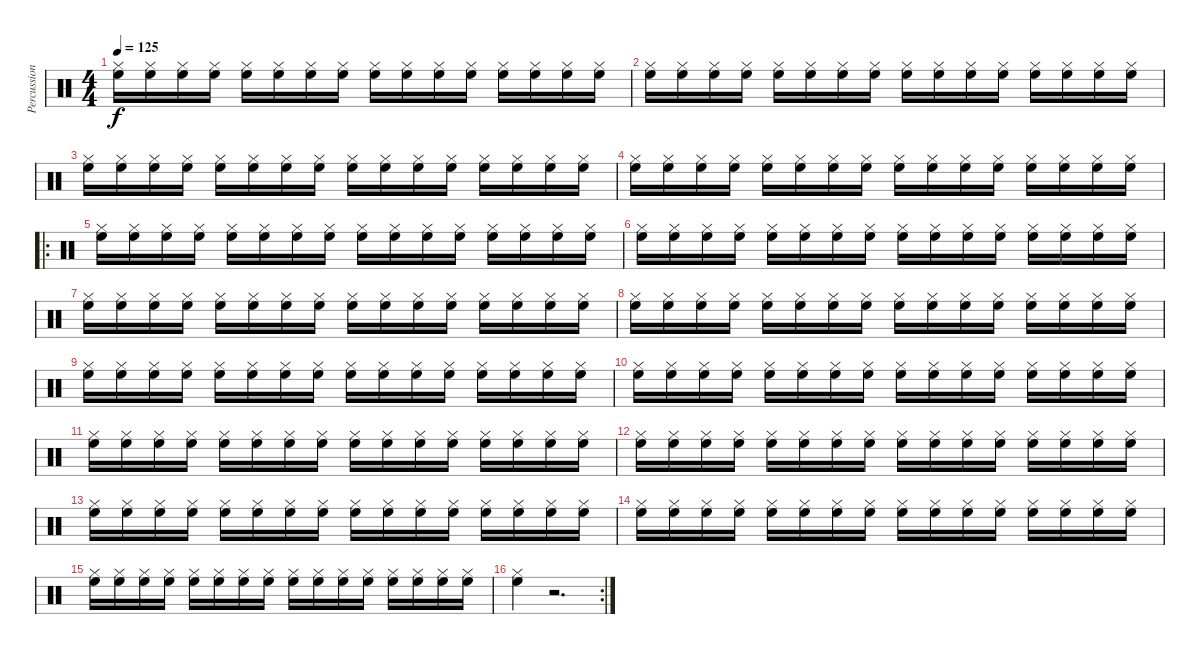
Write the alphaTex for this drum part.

\track ("Percussion" "Percussion") {instrument percussion}
\staff {score}
\articulation defaults
\ts (4 4)
\tempo 125
\clef neutral
\ks c
("Hi-Hat (closed)" "High Floor Tom (hit)").16{dy f} ("Hi-Hat (closed)" "High Floor Tom (hit)").16 ("Hi-Hat (closed)" "High Floor Tom (hit)").16 ("Hi-Hat (closed)" "High Floor Tom (hit)").16 ("Hi-Hat (closed)" "High Floor Tom (hit)").16 ("Hi-Hat (closed)" "High Floor Tom (hit)").16 ("Hi-Hat (closed)" "High Floor Tom (hit)").16 ("Hi-Hat (closed)" "High Floor Tom (hit)").16 ("Hi-Hat (closed)" "High Floor Tom (hit)").16 ("Hi-Hat (closed)" "High Floor Tom (hit)").16 ("Hi-Hat (closed)" "High Floor Tom (hit)").16 ("Hi-Hat (closed)" "High Floor Tom (hit)").16 ("Hi-Hat (closed)" "High Floor Tom (hit)").16 ("Hi-Hat (closed)" "High Floor Tom (hit)").16 ("Hi-Hat (closed)" "High Floor Tom (hit)").16 ("Hi-Hat (closed)" "High Floor Tom (hit)").16 |
("Hi-Hat (closed)" "High Floor Tom (hit)").16 ("Hi-Hat (closed)" "High Floor Tom (hit)").16 ("Hi-Hat (closed)" "High Floor Tom (hit)").16 ("Hi-Hat (closed)" "High Floor Tom (hit)").16 ("Hi-Hat (closed)" "High Floor Tom (hit)").16 ("Hi-Hat (closed)" "High Floor Tom (hit)").16 ("Hi-Hat (closed)" "High Floor Tom (hit)").16 ("Hi-Hat (closed)" "High Floor Tom (hit)").16 ("Hi-Hat (closed)" "High Floor Tom (hit)").16 ("Hi-Hat (closed)" "High Floor Tom (hit)").16 ("Hi-Hat (closed)" "High Floor Tom (hit)").16 ("Hi-Hat (closed)" "High Floor Tom (hit)").16 ("Hi-Hat (closed)" "High Floor Tom (hit)").16 ("Hi-Hat (closed)" "High Floor Tom (hit)").16 ("Hi-Hat (closed)" "High Floor Tom (hit)").16 ("Hi-Hat (closed)" "High Floor Tom (hit)").16 |
("Hi-Hat (closed)" "High Floor Tom (hit)").16 ("Hi-Hat (closed)" "High Floor Tom (hit)").16 ("Hi-Hat (closed)" "High Floor Tom (hit)").16 ("Hi-Hat (closed)" "High Floor Tom (hit)").16 ("Hi-Hat (closed)" "High Floor Tom (hit)").16 ("Hi-Hat (closed)" "High Floor Tom (hit)").16 ("Hi-Hat (closed)" "High Floor Tom (hit)").16 ("Hi-Hat (closed)" "High Floor Tom (hit)").16 ("Hi-Hat (closed)" "High Floor Tom (hit)").16 ("Hi-Hat (closed)" "High Floor Tom (hit)").16 ("Hi-Hat (closed)" "High Floor Tom (hit)").16 ("Hi-Hat (closed)" "High Floor Tom (hit)").16 ("Hi-Hat (closed)" "High Floor Tom (hit)").16 ("Hi-Hat (closed)" "High Floor Tom (hit)").16 ("Hi-Hat (closed)" "High Floor Tom (hit)").16 ("Hi-Hat (closed)" "High Floor Tom (hit)").16 |
("Hi-Hat (closed)" "High Floor Tom (hit)").16 ("Hi-Hat (closed)" "High Floor Tom (hit)").16 ("Hi-Hat (closed)" "High Floor Tom (hit)").16 ("Hi-Hat (closed)" "High Floor Tom (hit)").16 ("Hi-Hat (closed)" "High Floor Tom (hit)").16 ("Hi-Hat (closed)" "High Floor Tom (hit)").16 ("Hi-Hat (closed)" "High Floor Tom (hit)").16 ("Hi-Hat (closed)" "High Floor Tom (hit)").16 ("Hi-Hat (closed)" "High Floor Tom (hit)").16 ("Hi-Hat (closed)" "High Floor Tom (hit)").16 ("Hi-Hat (closed)" "High Floor Tom (hit)").16 ("Hi-Hat (closed)" "High Floor Tom (hit)").16 ("Hi-Hat (closed)" "High Floor Tom (hit)").16 ("Hi-Hat (closed)" "High Floor Tom (hit)").16 ("Hi-Hat (closed)" "High Floor Tom (hit)").16 ("Hi-Hat (closed)" "High Floor Tom (hit)").16 |
\ro
("Hi-Hat (closed)" "High Floor Tom (hit)").16 ("Hi-Hat (closed)" "High Floor Tom (hit)").16 ("Hi-Hat (closed)" "High Floor Tom (hit)").16 ("Hi-Hat (closed)" "High Floor Tom (hit)").16 ("Hi-Hat (closed)" "High Floor Tom (hit)").16 ("Hi-Hat (closed)" "High Floor Tom (hit)").16 ("Hi-Hat (closed)" "High Floor Tom (hit)").16 ("Hi-Hat (closed)" "High Floor Tom (hit)").16 ("Hi-Hat (closed)" "High Floor Tom (hit)").16 ("Hi-Hat (closed)" "High Floor Tom (hit)").16 ("Hi-Hat (closed)" "High Floor Tom (hit)").16 ("Hi-Hat (closed)" "High Floor Tom (hit)").16 ("Hi-Hat (closed)" "High Floor Tom (hit)").16 ("Hi-Hat (closed)" "High Floor Tom (hit)").16 ("Hi-Hat (closed)" "High Floor Tom (hit)").16 ("Hi-Hat (closed)" "High Floor Tom (hit)").16 |
("Hi-Hat (closed)" "High Floor Tom (hit)").16 ("Hi-Hat (closed)" "High Floor Tom (hit)").16 ("Hi-Hat (closed)" "High Floor Tom (hit)").16 ("Hi-Hat (closed)" "High Floor Tom (hit)").16 ("Hi-Hat (closed)" "High Floor Tom (hit)").16 ("Hi-Hat (closed)" "High Floor Tom (hit)").16 ("Hi-Hat (closed)" "High Floor Tom (hit)").16 ("Hi-Hat (closed)" "High Floor Tom (hit)").16 ("Hi-Hat (closed)" "High Floor Tom (hit)").16 ("Hi-Hat (closed)" "High Floor Tom (hit)").16 ("Hi-Hat (closed)" "High Floor Tom (hit)").16 ("Hi-Hat (closed)" "High Floor Tom (hit)").16 ("Hi-Hat (closed)" "High Floor Tom (hit)").16 ("Hi-Hat (closed)" "High Floor Tom (hit)").16 ("Hi-Hat (closed)" "High Floor Tom (hit)").16 ("Hi-Hat (closed)" "High Floor Tom (hit)").16 |
("Hi-Hat (closed)" "High Floor Tom (hit)").16 ("Hi-Hat (closed)" "High Floor Tom (hit)").16 ("Hi-Hat (closed)" "High Floor Tom (hit)").16 ("Hi-Hat (closed)" "High Floor Tom (hit)").16 ("Hi-Hat (closed)" "High Floor Tom (hit)").16 ("Hi-Hat (closed)" "High Floor Tom (hit)").16 ("Hi-Hat (closed)" "High Floor Tom (hit)").16 ("Hi-Hat (closed)" "High Floor Tom (hit)").16 ("Hi-Hat (closed)" "High Floor Tom (hit)").16 ("Hi-Hat (closed)" "High Floor Tom (hit)").16 ("Hi-Hat (closed)" "High Floor Tom (hit)").16 ("Hi-Hat (closed)" "High Floor Tom (hit)").16 ("Hi-Hat (closed)" "High Floor Tom (hit)").16 ("Hi-Hat (closed)" "High Floor Tom (hit)").16 ("Hi-Hat (closed)" "High Floor Tom (hit)").16 ("Hi-Hat (closed)" "High Floor Tom (hit)").16 |
("Hi-Hat (closed)" "High Floor Tom (hit)").16 ("Hi-Hat (closed)" "High Floor Tom (hit)").16 ("Hi-Hat (closed)" "High Floor Tom (hit)").16 ("Hi-Hat (closed)" "High Floor Tom (hit)").16 ("Hi-Hat (closed)" "High Floor Tom (hit)").16 ("Hi-Hat (closed)" "High Floor Tom (hit)").16 ("Hi-Hat (closed)" "High Floor Tom (hit)").16 ("Hi-Hat (closed)" "High Floor Tom (hit)").16 ("Hi-Hat (closed)" "High Floor Tom (hit)").16 ("Hi-Hat (closed)" "High Floor Tom (hit)").16 ("Hi-Hat (closed)" "High Floor Tom (hit)").16 ("Hi-Hat (closed)" "High Floor Tom (hit)").16 ("Hi-Hat (closed)" "High Floor Tom (hit)").16 ("Hi-Hat (closed)" "High Floor Tom (hit)").16 ("Hi-Hat (closed)" "High Floor Tom (hit)").16 ("Hi-Hat (closed)" "High Floor Tom (hit)").16 |
("Hi-Hat (closed)" "High Floor Tom (hit)").16 ("Hi-Hat (closed)" "High Floor Tom (hit)").16 ("Hi-Hat (closed)" "High Floor Tom (hit)").16 ("Hi-Hat (closed)" "High Floor Tom (hit)").16 ("Hi-Hat (closed)" "High Floor Tom (hit)").16 ("Hi-Hat (closed)" "High Floor Tom (hit)").16 ("Hi-Hat (closed)" "High Floor Tom (hit)").16 ("Hi-Hat (closed)" "High Floor Tom (hit)").16 ("Hi-Hat (closed)" "High Floor Tom (hit)").16 ("Hi-Hat (closed)" "High Floor Tom (hit)").16 ("Hi-Hat (closed)" "High Floor Tom (hit)").16 ("Hi-Hat (closed)" "High Floor Tom (hit)").16 ("Hi-Hat (closed)" "High Floor Tom (hit)").16 ("Hi-Hat (closed)" "High Floor Tom (hit)").16 ("Hi-Hat (closed)" "High Floor Tom (hit)").16 ("Hi-Hat (closed)" "High Floor Tom (hit)").16 |
("Hi-Hat (closed)" "High Floor Tom (hit)").16 ("Hi-Hat (closed)" "High Floor Tom (hit)").16 ("Hi-Hat (closed)" "High Floor Tom (hit)").16 ("Hi-Hat (closed)" "High Floor Tom (hit)").16 ("Hi-Hat (closed)" "High Floor Tom (hit)").16 ("Hi-Hat (closed)" "High Floor Tom (hit)").16 ("Hi-Hat (closed)" "High Floor Tom (hit)").16 ("Hi-Hat (closed)" "High Floor Tom (hit)").16 ("Hi-Hat (closed)" "High Floor Tom (hit)").16 ("Hi-Hat (closed)" "High Floor Tom (hit)").16 ("Hi-Hat (closed)" "High Floor Tom (hit)").16 ("Hi-Hat (closed)" "High Floor Tom (hit)").16 ("Hi-Hat (closed)" "High Floor Tom (hit)").16 ("Hi-Hat (closed)" "High Floor Tom (hit)").16 ("Hi-Hat (closed)" "High Floor Tom (hit)").16 ("Hi-Hat (closed)" "High Floor Tom (hit)").16 |
("Hi-Hat (closed)" "High Floor Tom (hit)").16 ("Hi-Hat (closed)" "High Floor Tom (hit)").16 ("Hi-Hat (closed)" "High Floor Tom (hit)").16 ("Hi-Hat (closed)" "High Floor Tom (hit)").16 ("Hi-Hat (closed)" "High Floor Tom (hit)").16 ("Hi-Hat (closed)" "High Floor Tom (hit)").16 ("Hi-Hat (closed)" "High Floor Tom (hit)").16 ("Hi-Hat (closed)" "High Floor Tom (hit)").16 ("Hi-Hat (closed)" "High Floor Tom (hit)").16 ("Hi-Hat (closed)" "High Floor Tom (hit)").16 ("Hi-Hat (closed)" "High Floor Tom (hit)").16 ("Hi-Hat (closed)" "High Floor Tom (hit)").16 ("Hi-Hat (closed)" "High Floor Tom (hit)").16 ("Hi-Hat (closed)" "High Floor Tom (hit)").16 ("Hi-Hat (closed)" "High Floor Tom (hit)").16 ("Hi-Hat (closed)" "High Floor Tom (hit)").16 |
("Hi-Hat (closed)" "High Floor Tom (hit)").16 ("Hi-Hat (closed)" "High Floor Tom (hit)").16 ("Hi-Hat (closed)" "High Floor Tom (hit)").16 ("Hi-Hat (closed)" "High Floor Tom (hit)").16 ("Hi-Hat (closed)" "High Floor Tom (hit)").16 ("Hi-Hat (closed)" "High Floor Tom (hit)").16 ("Hi-Hat (closed)" "High Floor Tom (hit)").16 ("Hi-Hat (closed)" "High Floor Tom (hit)").16 ("Hi-Hat (closed)" "High Floor Tom (hit)").16 ("Hi-Hat (closed)" "High Floor Tom (hit)").16 ("Hi-Hat (closed)" "High Floor Tom (hit)").16 ("Hi-Hat (closed)" "High Floor Tom (hit)").16 ("Hi-Hat (closed)" "High Floor Tom (hit)").16 ("Hi-Hat (closed)" "High Floor Tom (hit)").16 ("Hi-Hat (closed)" "High Floor Tom (hit)").16 ("Hi-Hat (closed)" "High Floor Tom (hit)").16 |
("Hi-Hat (closed)" "High Floor Tom (hit)").16 ("Hi-Hat (closed)" "High Floor Tom (hit)").16 ("Hi-Hat (closed)" "High Floor Tom (hit)").16 ("Hi-Hat (closed)" "High Floor Tom (hit)").16 ("Hi-Hat (closed)" "High Floor Tom (hit)").16 ("Hi-Hat (closed)" "High Floor Tom (hit)").16 ("Hi-Hat (closed)" "High Floor Tom (hit)").16 ("Hi-Hat (closed)" "High Floor Tom (hit)").16 ("Hi-Hat (closed)" "High Floor Tom (hit)").16 ("Hi-Hat (closed)" "High Floor Tom (hit)").16 ("Hi-Hat (closed)" "High Floor Tom (hit)").16 ("Hi-Hat (closed)" "High Floor Tom (hit)").16 ("Hi-Hat (closed)" "High Floor Tom (hit)").16 ("Hi-Hat (closed)" "High Floor Tom (hit)").16 ("Hi-Hat (closed)" "High Floor Tom (hit)").16 ("Hi-Hat (closed)" "High Floor Tom (hit)").16 |
("Hi-Hat (closed)" "High Floor Tom (hit)").16 ("Hi-Hat (closed)" "High Floor Tom (hit)").16 ("Hi-Hat (closed)" "High Floor Tom (hit)").16 ("Hi-Hat (closed)" "High Floor Tom (hit)").16 ("Hi-Hat (closed)" "High Floor Tom (hit)").16 ("Hi-Hat (closed)" "High Floor Tom (hit)").16 ("Hi-Hat (closed)" "High Floor Tom (hit)").16 ("Hi-Hat (closed)" "High Floor Tom (hit)").16 ("Hi-Hat (closed)" "High Floor Tom (hit)").16 ("Hi-Hat (closed)" "High Floor Tom (hit)").16 ("Hi-Hat (closed)" "High Floor Tom (hit)").16 ("Hi-Hat (closed)" "High Floor Tom (hit)").16 ("Hi-Hat (closed)" "High Floor Tom (hit)").16 ("Hi-Hat (closed)" "High Floor Tom (hit)").16 ("Hi-Hat (closed)" "High Floor Tom (hit)").16 ("Hi-Hat (closed)" "High Floor Tom (hit)").16 |
("Hi-Hat (closed)" "High Floor Tom (hit)").16 ("Hi-Hat (closed)" "High Floor Tom (hit)").16 ("Hi-Hat (closed)" "High Floor Tom (hit)").16 ("Hi-Hat (closed)" "High Floor Tom (hit)").16 ("Hi-Hat (closed)" "High Floor Tom (hit)").16 ("Hi-Hat (closed)" "High Floor Tom (hit)").16 ("Hi-Hat (closed)" "High Floor Tom (hit)").16 ("Hi-Hat (closed)" "High Floor Tom (hit)").16 ("Hi-Hat (closed)" "High Floor Tom (hit)").16 ("Hi-Hat (closed)" "High Floor Tom (hit)").16 ("Hi-Hat (closed)" "High Floor Tom (hit)").16 ("Hi-Hat (closed)" "High Floor Tom (hit)").16 ("Hi-Hat (closed)" "High Floor Tom (hit)").16 ("Hi-Hat (closed)" "High Floor Tom (hit)").16 ("Hi-Hat (closed)" "High Floor Tom (hit)").16 ("Hi-Hat (closed)" "High Floor Tom (hit)").16 |
\rc 2
("Hi-Hat (closed)" "High Floor Tom (hit)").4 r.2{d}
